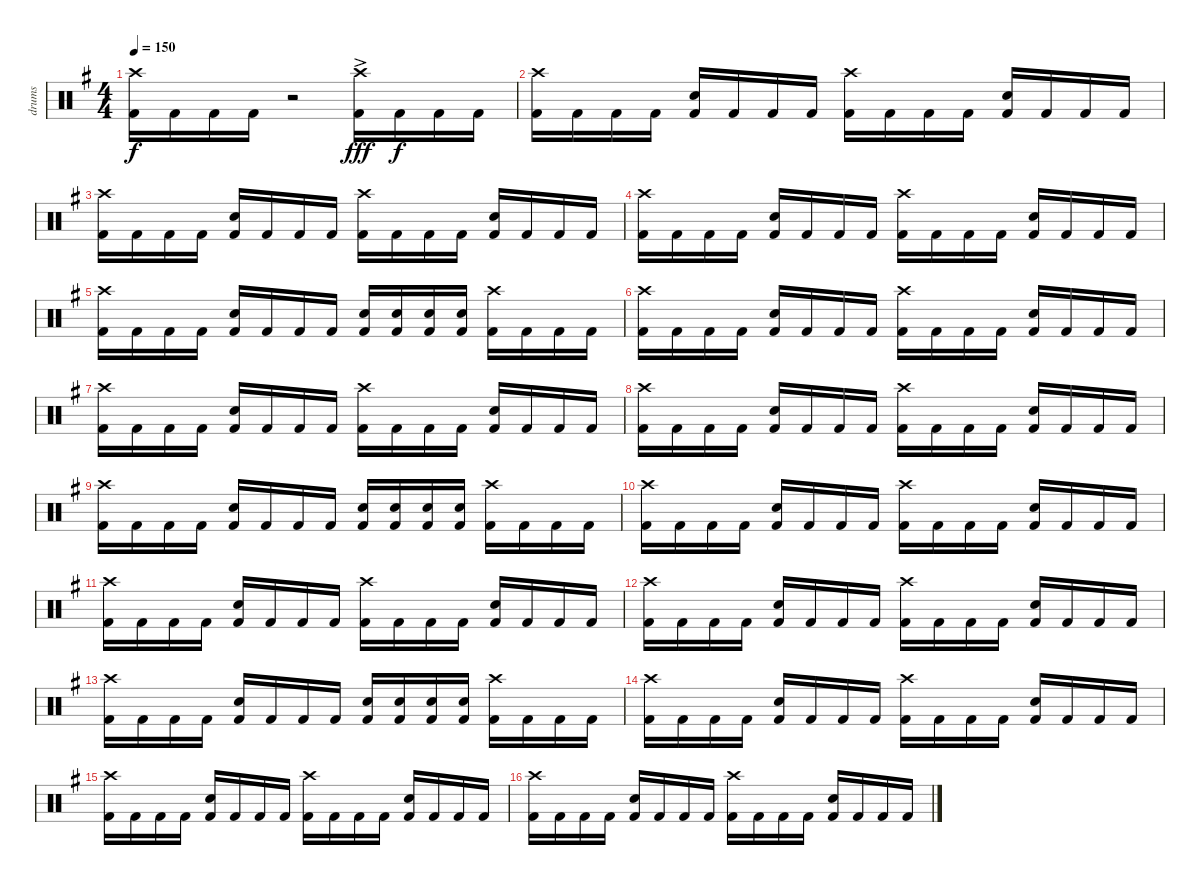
\track ("drums" "drums") {instrument percussion}
\staff {score}
\articulation defaults
\ts (4 4)
\tempo 150
\clef neutral
\ks g
("Crash high (hit)" "Kick (hit) 2").16{dy f} "Kick (hit) 2".16 "Kick (hit) 2".16 "Kick (hit) 2".16 r.2 ("Crash high (hit)"{ac} "Kick (hit) 2").16{dy fff} "Kick (hit) 2".16{dy f} "Kick (hit) 2".16 "Kick (hit) 2".16 |
("Crash high (hit)" "Kick (hit) 2").16 "Kick (hit) 2".16 "Kick (hit) 2".16 "Kick (hit) 2".16 ("Electric Snare (hit)" "Kick (hit) 2").16 "Kick (hit) 2".16 "Kick (hit) 2".16 "Kick (hit) 2".16 ("Crash high (hit)" "Kick (hit) 2").16 "Kick (hit) 2".16 "Kick (hit) 2".16 "Kick (hit) 2".16 ("Electric Snare (hit)" "Kick (hit) 2").16 "Kick (hit) 2".16 "Kick (hit) 2".16 "Kick (hit) 2".16 |
("Crash high (hit)" "Kick (hit) 2").16 "Kick (hit) 2".16 "Kick (hit) 2".16 "Kick (hit) 2".16 ("Electric Snare (hit)" "Kick (hit) 2").16 "Kick (hit) 2".16 "Kick (hit) 2".16 "Kick (hit) 2".16 ("Crash high (hit)" "Kick (hit) 2").16 "Kick (hit) 2".16 "Kick (hit) 2".16 "Kick (hit) 2".16 ("Electric Snare (hit)" "Kick (hit) 2").16 "Kick (hit) 2".16 "Kick (hit) 2".16 "Kick (hit) 2".16 |
("Crash high (hit)" "Kick (hit) 2").16 "Kick (hit) 2".16 "Kick (hit) 2".16 "Kick (hit) 2".16 ("Electric Snare (hit)" "Kick (hit) 2").16 "Kick (hit) 2".16 "Kick (hit) 2".16 "Kick (hit) 2".16 ("Crash high (hit)" "Kick (hit) 2").16 "Kick (hit) 2".16 "Kick (hit) 2".16 "Kick (hit) 2".16 ("Electric Snare (hit)" "Kick (hit) 2").16 "Kick (hit) 2".16 "Kick (hit) 2".16 "Kick (hit) 2".16 |
("Crash high (hit)" "Kick (hit) 2").16 "Kick (hit) 2".16 "Kick (hit) 2".16 "Kick (hit) 2".16 ("Electric Snare (hit)" "Kick (hit) 2").16 "Kick (hit) 2".16 "Kick (hit) 2".16 "Kick (hit) 2".16 ("Electric Snare (hit)" "Kick (hit) 2").16 ("Electric Snare (hit)" "Kick (hit) 2").16 ("Electric Snare (hit)" "Kick (hit) 2").16 ("Electric Snare (hit)" "Kick (hit) 2").16 ("Crash high (hit)" "Kick (hit) 2").16 "Kick (hit) 2".16 "Kick (hit) 2".16 "Kick (hit) 2".16 |
("Crash high (hit)" "Kick (hit) 2").16 "Kick (hit) 2".16 "Kick (hit) 2".16 "Kick (hit) 2".16 ("Electric Snare (hit)" "Kick (hit) 2").16 "Kick (hit) 2".16 "Kick (hit) 2".16 "Kick (hit) 2".16 ("Crash high (hit)" "Kick (hit) 2").16 "Kick (hit) 2".16 "Kick (hit) 2".16 "Kick (hit) 2".16 ("Electric Snare (hit)" "Kick (hit) 2").16 "Kick (hit) 2".16 "Kick (hit) 2".16 "Kick (hit) 2".16 |
("Crash high (hit)" "Kick (hit) 2").16 "Kick (hit) 2".16 "Kick (hit) 2".16 "Kick (hit) 2".16 ("Electric Snare (hit)" "Kick (hit) 2").16 "Kick (hit) 2".16 "Kick (hit) 2".16 "Kick (hit) 2".16 ("Crash high (hit)" "Kick (hit) 2").16 "Kick (hit) 2".16 "Kick (hit) 2".16 "Kick (hit) 2".16 ("Electric Snare (hit)" "Kick (hit) 2").16 "Kick (hit) 2".16 "Kick (hit) 2".16 "Kick (hit) 2".16 |
("Crash high (hit)" "Kick (hit) 2").16 "Kick (hit) 2".16 "Kick (hit) 2".16 "Kick (hit) 2".16 ("Electric Snare (hit)" "Kick (hit) 2").16 "Kick (hit) 2".16 "Kick (hit) 2".16 "Kick (hit) 2".16 ("Crash high (hit)" "Kick (hit) 2").16 "Kick (hit) 2".16 "Kick (hit) 2".16 "Kick (hit) 2".16 ("Electric Snare (hit)" "Kick (hit) 2").16 "Kick (hit) 2".16 "Kick (hit) 2".16 "Kick (hit) 2".16 |
("Crash high (hit)" "Kick (hit) 2").16 "Kick (hit) 2".16 "Kick (hit) 2".16 "Kick (hit) 2".16 ("Electric Snare (hit)" "Kick (hit) 2").16 "Kick (hit) 2".16 "Kick (hit) 2".16 "Kick (hit) 2".16 ("Electric Snare (hit)" "Kick (hit) 2").16 ("Electric Snare (hit)" "Kick (hit) 2").16 ("Electric Snare (hit)" "Kick (hit) 2").16 ("Electric Snare (hit)" "Kick (hit) 2").16 ("Crash high (hit)" "Kick (hit) 2").16 "Kick (hit) 2".16 "Kick (hit) 2".16 "Kick (hit) 2".16 |
("Crash high (hit)" "Kick (hit) 2").16 "Kick (hit) 2".16 "Kick (hit) 2".16 "Kick (hit) 2".16 ("Electric Snare (hit)" "Kick (hit) 2").16 "Kick (hit) 2".16 "Kick (hit) 2".16 "Kick (hit) 2".16 ("Crash high (hit)" "Kick (hit) 2").16 "Kick (hit) 2".16 "Kick (hit) 2".16 "Kick (hit) 2".16 ("Electric Snare (hit)" "Kick (hit) 2").16 "Kick (hit) 2".16 "Kick (hit) 2".16 "Kick (hit) 2".16 |
("Crash high (hit)" "Kick (hit) 2").16 "Kick (hit) 2".16 "Kick (hit) 2".16 "Kick (hit) 2".16 ("Electric Snare (hit)" "Kick (hit) 2").16 "Kick (hit) 2".16 "Kick (hit) 2".16 "Kick (hit) 2".16 ("Crash high (hit)" "Kick (hit) 2").16 "Kick (hit) 2".16 "Kick (hit) 2".16 "Kick (hit) 2".16 ("Electric Snare (hit)" "Kick (hit) 2").16 "Kick (hit) 2".16 "Kick (hit) 2".16 "Kick (hit) 2".16 |
("Crash high (hit)" "Kick (hit) 2").16 "Kick (hit) 2".16 "Kick (hit) 2".16 "Kick (hit) 2".16 ("Electric Snare (hit)" "Kick (hit) 2").16 "Kick (hit) 2".16 "Kick (hit) 2".16 "Kick (hit) 2".16 ("Crash high (hit)" "Kick (hit) 2").16 "Kick (hit) 2".16 "Kick (hit) 2".16 "Kick (hit) 2".16 ("Electric Snare (hit)" "Kick (hit) 2").16 "Kick (hit) 2".16 "Kick (hit) 2".16 "Kick (hit) 2".16 |
("Crash high (hit)" "Kick (hit) 2").16 "Kick (hit) 2".16 "Kick (hit) 2".16 "Kick (hit) 2".16 ("Electric Snare (hit)" "Kick (hit) 2").16 "Kick (hit) 2".16 "Kick (hit) 2".16 "Kick (hit) 2".16 ("Electric Snare (hit)" "Kick (hit) 2").16 ("Electric Snare (hit)" "Kick (hit) 2").16 ("Electric Snare (hit)" "Kick (hit) 2").16 ("Electric Snare (hit)" "Kick (hit) 2").16 ("Crash high (hit)" "Kick (hit) 2").16 "Kick (hit) 2".16 "Kick (hit) 2".16 "Kick (hit) 2".16 |
("Crash high (hit)" "Kick (hit) 2").16 "Kick (hit) 2".16 "Kick (hit) 2".16 "Kick (hit) 2".16 ("Electric Snare (hit)" "Kick (hit) 2").16 "Kick (hit) 2".16 "Kick (hit) 2".16 "Kick (hit) 2".16 ("Crash high (hit)" "Kick (hit) 2").16 "Kick (hit) 2".16 "Kick (hit) 2".16 "Kick (hit) 2".16 ("Electric Snare (hit)" "Kick (hit) 2").16 "Kick (hit) 2".16 "Kick (hit) 2".16 "Kick (hit) 2".16 |
("Crash high (hit)" "Kick (hit) 2").16 "Kick (hit) 2".16 "Kick (hit) 2".16 "Kick (hit) 2".16 ("Electric Snare (hit)" "Kick (hit) 2").16 "Kick (hit) 2".16 "Kick (hit) 2".16 "Kick (hit) 2".16 ("Crash high (hit)" "Kick (hit) 2").16 "Kick (hit) 2".16 "Kick (hit) 2".16 "Kick (hit) 2".16 ("Electric Snare (hit)" "Kick (hit) 2").16 "Kick (hit) 2".16 "Kick (hit) 2".16 "Kick (hit) 2".16 |
("Crash high (hit)" "Kick (hit) 2").16 "Kick (hit) 2".16 "Kick (hit) 2".16 "Kick (hit) 2".16 ("Electric Snare (hit)" "Kick (hit) 2").16 "Kick (hit) 2".16 "Kick (hit) 2".16 "Kick (hit) 2".16 ("Crash high (hit)" "Kick (hit) 2").16 "Kick (hit) 2".16 "Kick (hit) 2".16 "Kick (hit) 2".16 ("Electric Snare (hit)" "Kick (hit) 2").16 "Kick (hit) 2".16 "Kick (hit) 2".16 "Kick (hit) 2".16
